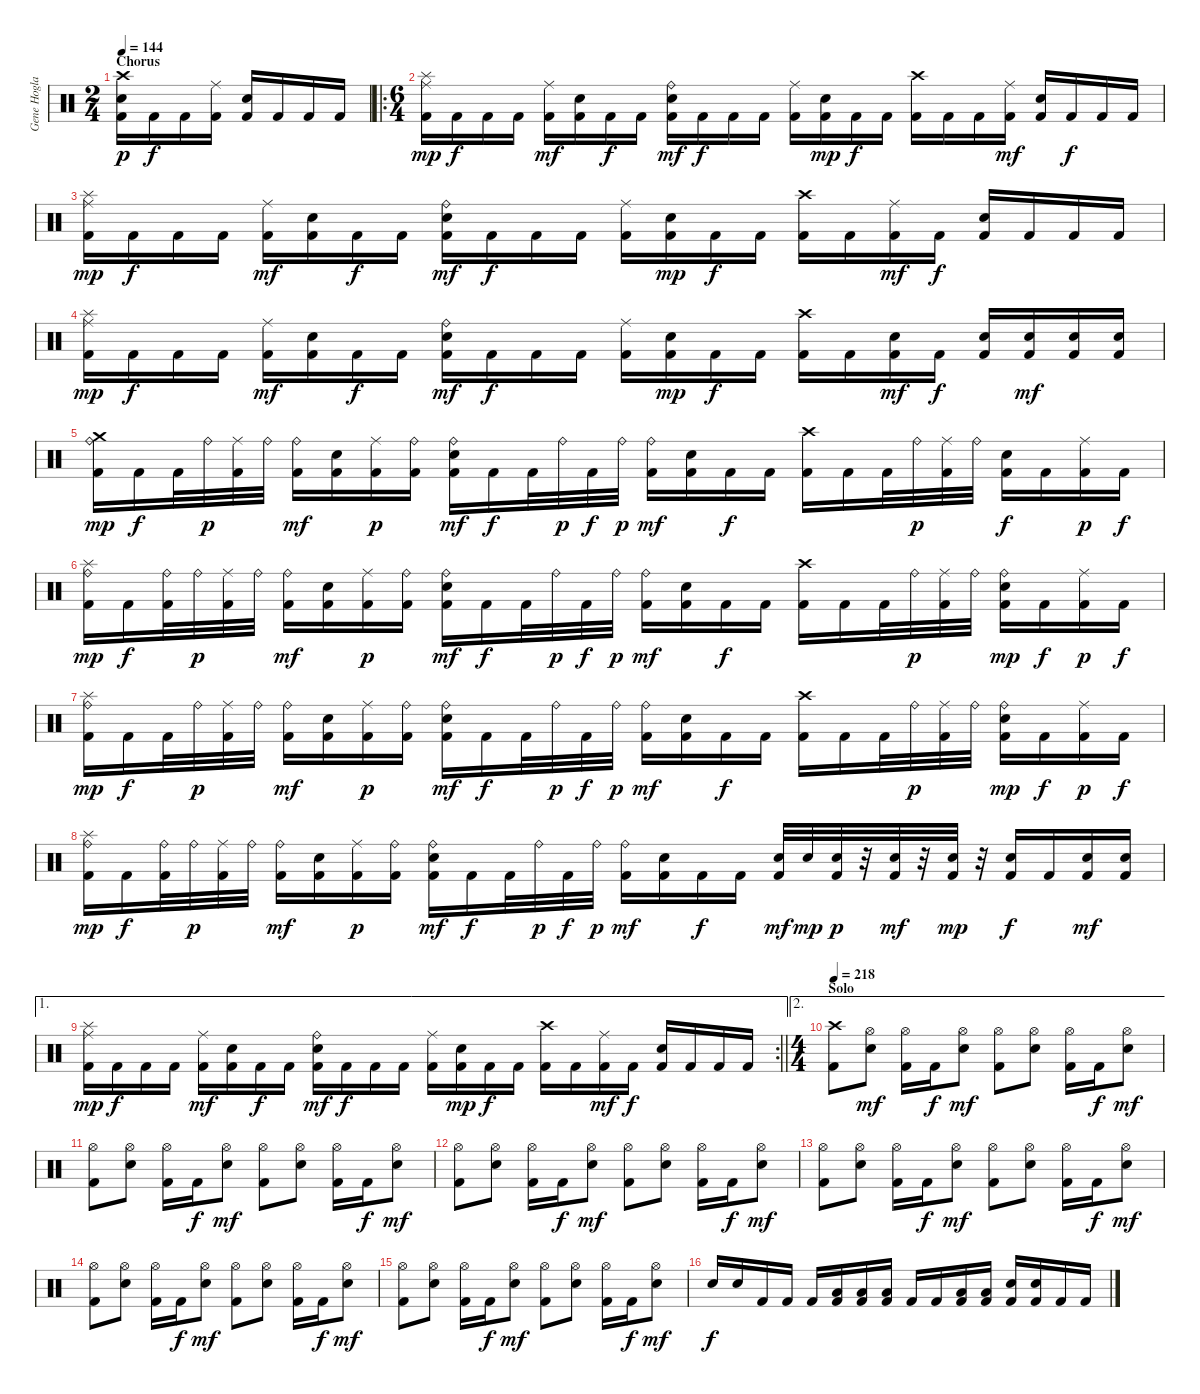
\track ("Gene Hoglan" "Gene Hogla") {instrument percussion}
\staff {score}
\articulation defaults
\ts (2 4)
\section ("" "Chorus")
\tempo 144
\clef neutral
\ks c
("Crash high (hit)" "Electric Snare (hit)" "Kick (hit) 2").16{dy p} "Kick (hit) 2".16{dy f} "Kick (hit) 2".16 ("Ride (middle)" "Kick (hit) 2").16 ("Electric Snare (hit)" "Kick (hit) 2").16 "Kick (hit) 2".16 "Kick (hit) 2".16 "Kick (hit) 2".16 |
\ro
\ts (6 4)
("Splash (hit)" "Ride (middle)" "Kick (hit) 2").16{dy mp} "Kick (hit) 2".16{dy f} "Kick (hit) 2".16 "Kick (hit) 2".16 ("Ride (middle)" "Kick (hit) 2").16{dy mf} ("Electric Snare (hit)" "Kick (hit) 2").16 "Kick (hit) 2".16{dy f} "Kick (hit) 2".16 ("Ride (bell)" "Electric Snare (hit)" "Kick (hit) 2").16{dy mf} "Kick (hit) 2".16{dy f} "Kick (hit) 2".16 "Kick (hit) 2".16 ("Ride (middle)" "Kick (hit) 2").16 ("Electric Snare (hit)" "Kick (hit) 2").16{dy mp} "Kick (hit) 2".16{dy f} "Kick (hit) 2".16 ("Crash high (hit)" "Kick (hit) 2").16 "Kick (hit) 2".16 "Kick (hit) 2".16 ("Ride (middle)" "Kick (hit) 2").16{dy mf} ("Electric Snare (hit)" "Kick (hit) 2").16 "Kick (hit) 2".16{dy f} "Kick (hit) 2".16 "Kick (hit) 2".16 |
("Splash (hit)" "Ride (middle)" "Kick (hit) 2").16{dy mp} "Kick (hit) 2".16{dy f} "Kick (hit) 2".16 "Kick (hit) 2".16 ("Ride (middle)" "Kick (hit) 2").16{dy mf} ("Electric Snare (hit)" "Kick (hit) 2").16 "Kick (hit) 2".16{dy f} "Kick (hit) 2".16 ("Ride (bell)" "Electric Snare (hit)" "Kick (hit) 2").16{dy mf} "Kick (hit) 2".16{dy f} "Kick (hit) 2".16 "Kick (hit) 2".16 ("Ride (middle)" "Kick (hit) 2").16 ("Electric Snare (hit)" "Kick (hit) 2").16{dy mp} "Kick (hit) 2".16{dy f} "Kick (hit) 2".16 ("Crash high (hit)" "Kick (hit) 2").16 "Kick (hit) 2".16 ("Ride (middle)" "Kick (hit) 2").16{dy mf} "Kick (hit) 2".16{dy f} ("Electric Snare (hit)" "Kick (hit) 2").16 "Kick (hit) 2".16 "Kick (hit) 2".16 "Kick (hit) 2".16 |
("Splash (hit)" "Ride (middle)" "Kick (hit) 2").16{dy mp} "Kick (hit) 2".16{dy f} "Kick (hit) 2".16 "Kick (hit) 2".16 ("Ride (middle)" "Kick (hit) 2").16{dy mf} ("Electric Snare (hit)" "Kick (hit) 2").16 "Kick (hit) 2".16{dy f} "Kick (hit) 2".16 ("Ride (bell)" "Electric Snare (hit)" "Kick (hit) 2").16{dy mf} "Kick (hit) 2".16{dy f} "Kick (hit) 2".16 "Kick (hit) 2".16 ("Ride (middle)" "Kick (hit) 2").16 ("Electric Snare (hit)" "Kick (hit) 2").16{dy mp} "Kick (hit) 2".16{dy f} "Kick (hit) 2".16 ("Crash high (hit)" "Kick (hit) 2").16 "Kick (hit) 2".16 ("Electric Snare (hit)" "Kick (hit) 2").16{dy mf} "Kick (hit) 2".16{dy f} ("Electric Snare (hit)" "Kick (hit) 2").16 ("Electric Snare (hit)" "Kick (hit) 2").16{dy mf} ("Electric Snare (hit)" "Kick (hit) 2").16 ("Electric Snare (hit)" "Kick (hit) 2").16 |
("Crash medium (hit)" "Ride (bell)" "Kick (hit) 2").16{dy mp} "Kick (hit) 2".16{dy f} "Kick (hit) 2".32 "Ride (bell)".32{dy p} ("Ride (middle)" "Kick (hit) 2").32 "Ride (bell)".32 ("Ride (bell)" "Kick (hit) 2").16{dy mf} ("Electric Snare (hit)" "Kick (hit) 2").16 ("Ride (middle)" "Kick (hit) 2").16{dy p} ("Ride (bell)" "Kick (hit) 2").16 ("Ride (bell)" "Electric Snare (hit)" "Kick (hit) 2").16{dy mf} "Kick (hit) 2".16{dy f} "Kick (hit) 2".32 "Ride (bell)".32{dy p} "Kick (hit) 2".32{dy f} "Ride (bell)".32{dy p} ("Ride (bell)" "Kick (hit) 2").16{dy mf} ("Electric Snare (hit)" "Kick (hit) 2").16 "Kick (hit) 2".16{dy f} "Kick (hit) 2".16 ("Crash high (hit)" "Kick (hit) 2").16 "Kick (hit) 2".16 "Kick (hit) 2".32 "Ride (bell)".32{dy p} ("Ride (middle)" "Kick (hit) 2").32 "Ride (bell)".32 ("Electric Snare (hit)" "Kick (hit) 2").16{dy f} "Kick (hit) 2".16 ("Ride (middle)" "Kick (hit) 2").16{dy p} "Kick (hit) 2".16{dy f} |
("Splash (hit)" "Ride (bell)" "Kick (hit) 2").16{dy mp} "Kick (hit) 2".16{dy f} ("Ride (bell)" "Kick (hit) 2").32 "Ride (bell)".32{dy p} ("Ride (middle)" "Kick (hit) 2").32 "Ride (bell)".32 ("Ride (bell)" "Kick (hit) 2").16{dy mf} ("Electric Snare (hit)" "Kick (hit) 2").16 ("Ride (middle)" "Kick (hit) 2").16{dy p} ("Ride (bell)" "Kick (hit) 2").16 ("Ride (bell)" "Electric Snare (hit)" "Kick (hit) 2").16{dy mf} "Kick (hit) 2".16{dy f} "Kick (hit) 2".32 "Ride (bell)".32{dy p} "Kick (hit) 2".32{dy f} "Ride (bell)".32{dy p} ("Ride (bell)" "Kick (hit) 2").16{dy mf} ("Electric Snare (hit)" "Kick (hit) 2").16 "Kick (hit) 2".16{dy f} "Kick (hit) 2".16 ("Crash high (hit)" "Kick (hit) 2").16 "Kick (hit) 2".16 "Kick (hit) 2".32 "Ride (bell)".32{dy p} ("Ride (middle)" "Kick (hit) 2").32 "Ride (bell)".32 ("Ride (bell)" "Electric Snare (hit)" "Kick (hit) 2").16{dy mp} "Kick (hit) 2".16{dy f} ("Ride (middle)" "Kick (hit) 2").16{dy p} "Kick (hit) 2".16{dy f} |
("Splash (hit)" "Ride (bell)" "Kick (hit) 2").16{dy mp} "Kick (hit) 2".16{dy f} "Kick (hit) 2".32 "Ride (bell)".32{dy p} ("Ride (middle)" "Kick (hit) 2").32 "Ride (bell)".32 ("Ride (bell)" "Kick (hit) 2").16{dy mf} ("Electric Snare (hit)" "Kick (hit) 2").16 ("Ride (middle)" "Kick (hit) 2").16{dy p} ("Ride (bell)" "Kick (hit) 2").16 ("Ride (bell)" "Electric Snare (hit)" "Kick (hit) 2").16{dy mf} "Kick (hit) 2".16{dy f} "Kick (hit) 2".32 "Ride (bell)".32{dy p} "Kick (hit) 2".32{dy f} "Ride (bell)".32{dy p} ("Ride (bell)" "Kick (hit) 2").16{dy mf} ("Electric Snare (hit)" "Kick (hit) 2").16 "Kick (hit) 2".16{dy f} "Kick (hit) 2".16 ("Crash high (hit)" "Kick (hit) 2").16 "Kick (hit) 2".16 "Kick (hit) 2".32 "Ride (bell)".32{dy p} ("Ride (middle)" "Kick (hit) 2").32 "Ride (bell)".32 ("Ride (bell)" "Electric Snare (hit)" "Kick (hit) 2").16{dy mp} "Kick (hit) 2".16{dy f} ("Ride (middle)" "Kick (hit) 2").16{dy p} "Kick (hit) 2".16{dy f} |
("Splash (hit)" "Ride (bell)" "Kick (hit) 2").16{dy mp} "Kick (hit) 2".16{dy f} ("Ride (bell)" "Kick (hit) 2").32 "Ride (bell)".32{dy p} ("Ride (middle)" "Kick (hit) 2").32 "Ride (bell)".32 ("Ride (bell)" "Kick (hit) 2").16{dy mf} ("Electric Snare (hit)" "Kick (hit) 2").16 ("Ride (middle)" "Kick (hit) 2").16{dy p} ("Ride (bell)" "Kick (hit) 2").16 ("Ride (bell)" "Electric Snare (hit)" "Kick (hit) 2").16{dy mf} "Kick (hit) 2".16{dy f} "Kick (hit) 2".32 "Ride (bell)".32{dy p} "Kick (hit) 2".32{dy f} "Ride (bell)".32{dy p} ("Ride (bell)" "Kick (hit) 2").16{dy mf} ("Electric Snare (hit)" "Kick (hit) 2").16 "Kick (hit) 2".16{dy f} "Kick (hit) 2".16 ("Electric Snare (hit)" "Kick (hit) 2").32{dy mf} "Electric Snare (hit)".32{dy mp} ("Electric Snare (hit)" "Kick (hit) 2").32{dy p} r.32 ("Electric Snare (hit)" "Kick (hit) 2").32{dy mf} r.32 ("Electric Snare (hit)" "Kick (hit) 2").32{dy mp} r.32 ("Electric Snare (hit)" "Kick (hit) 2").16{dy f} "Kick (hit) 2".16 ("Electric Snare (hit)" "Kick (hit) 2").16{dy mf} ("Electric Snare (hit)" "Kick (hit) 2").16 |
\ae 1
\rc 2
\barLineRight lightlight
("Splash (hit)" "Ride (middle)" "Kick (hit) 2").16{dy mp} "Kick (hit) 2".16{dy f} "Kick (hit) 2".16 "Kick (hit) 2".16 ("Ride (middle)" "Kick (hit) 2").16{dy mf} ("Electric Snare (hit)" "Kick (hit) 2").16 "Kick (hit) 2".16{dy f} "Kick (hit) 2".16 ("Ride (bell)" "Electric Snare (hit)" "Kick (hit) 2").16{dy mf} "Kick (hit) 2".16{dy f} "Kick (hit) 2".16 "Kick (hit) 2".16 ("Ride (middle)" "Kick (hit) 2").16 ("Electric Snare (hit)" "Kick (hit) 2").16{dy mp} "Kick (hit) 2".16{dy f} "Kick (hit) 2".16 ("Crash high (hit)" "Kick (hit) 2").16 "Kick (hit) 2".16 ("Ride (middle)" "Kick (hit) 2").16{dy mf} "Kick (hit) 2".16{dy f} ("Electric Snare (hit)" "Kick (hit) 2").16 "Kick (hit) 2".16 "Kick (hit) 2".16 "Kick (hit) 2".16 |
\ae 2
\ts (4 4)
\section ("" "Solo")
\tempo 218
("Crash high (hit)" "Kick (hit) 2").8 ("Hi-Hat (open)" "Electric Snare (hit)").8{dy mf} ("Hi-Hat (open)" "Kick (hit) 2").16 "Kick (hit) 2".16{dy f} ("Hi-Hat (open)" "Electric Snare (hit)").8{dy mf} ("Hi-Hat (open)" "Kick (hit) 2").8 ("Hi-Hat (open)" "Electric Snare (hit)").8 ("Hi-Hat (open)" "Kick (hit) 2").16 "Kick (hit) 2".16{dy f} ("Hi-Hat (open)" "Electric Snare (hit)").8{dy mf} |
("Hi-Hat (open)" "Kick (hit) 2").8 ("Hi-Hat (open)" "Electric Snare (hit)").8 ("Hi-Hat (open)" "Kick (hit) 2").16 "Kick (hit) 2".16{dy f} ("Hi-Hat (open)" "Electric Snare (hit)").8{dy mf} ("Hi-Hat (open)" "Kick (hit) 2").8 ("Hi-Hat (open)" "Electric Snare (hit)").8 ("Hi-Hat (open)" "Kick (hit) 2").16 "Kick (hit) 2".16{dy f} ("Hi-Hat (open)" "Electric Snare (hit)").8{dy mf} |
("Hi-Hat (open)" "Kick (hit) 2").8 ("Hi-Hat (open)" "Electric Snare (hit)").8 ("Hi-Hat (open)" "Kick (hit) 2").16 "Kick (hit) 2".16{dy f} ("Hi-Hat (open)" "Electric Snare (hit)").8{dy mf} ("Hi-Hat (open)" "Kick (hit) 2").8 ("Hi-Hat (open)" "Electric Snare (hit)").8 ("Hi-Hat (open)" "Kick (hit) 2").16 "Kick (hit) 2".16{dy f} ("Hi-Hat (open)" "Electric Snare (hit)").8{dy mf} |
("Hi-Hat (open)" "Kick (hit) 2").8 ("Hi-Hat (open)" "Electric Snare (hit)").8 ("Hi-Hat (open)" "Kick (hit) 2").16 "Kick (hit) 2".16{dy f} ("Hi-Hat (open)" "Electric Snare (hit)").8{dy mf} ("Hi-Hat (open)" "Kick (hit) 2").8 ("Hi-Hat (open)" "Electric Snare (hit)").8 ("Hi-Hat (open)" "Kick (hit) 2").16 "Kick (hit) 2".16{dy f} ("Hi-Hat (open)" "Electric Snare (hit)").8{dy mf} |
("Hi-Hat (open)" "Kick (hit) 2").8 ("Hi-Hat (open)" "Electric Snare (hit)").8 ("Hi-Hat (open)" "Kick (hit) 2").16 "Kick (hit) 2".16{dy f} ("Hi-Hat (open)" "Electric Snare (hit)").8{dy mf} ("Hi-Hat (open)" "Kick (hit) 2").8 ("Hi-Hat (open)" "Electric Snare (hit)").8 ("Hi-Hat (open)" "Kick (hit) 2").16 "Kick (hit) 2".16{dy f} ("Hi-Hat (open)" "Electric Snare (hit)").8{dy mf} |
("Hi-Hat (open)" "Kick (hit) 2").8 ("Hi-Hat (open)" "Electric Snare (hit)").8 ("Hi-Hat (open)" "Kick (hit) 2").16 "Kick (hit) 2".16{dy f} ("Hi-Hat (open)" "Electric Snare (hit)").8{dy mf} ("Hi-Hat (open)" "Kick (hit) 2").8 ("Hi-Hat (open)" "Electric Snare (hit)").8 ("Hi-Hat (open)" "Kick (hit) 2").16 "Kick (hit) 2".16{dy f} ("Hi-Hat (open)" "Electric Snare (hit)").8{dy mf} |
"Electric Snare (hit)".16{dy f} "Electric Snare (hit)".16 "Kick (hit) 2".16 "Kick (hit) 2".16 "Kick (hit) 2".16 ("Low Tom (hit)" "Kick (hit) 2").16 ("Low Tom (hit)" "Kick (hit) 2").16 ("Low Tom (hit)" "Kick (hit) 2").16 "Kick (hit) 2".16 "Kick (hit) 2".16 ("Low Tom (hit)" "Kick (hit) 2").16 ("Low Tom (hit)" "Kick (hit) 2").16 ("Electric Snare (hit)" "Kick (hit) 2").16 ("Electric Snare (hit)" "Kick (hit) 2").16 "Kick (hit) 2".16 "Kick (hit) 2".16
